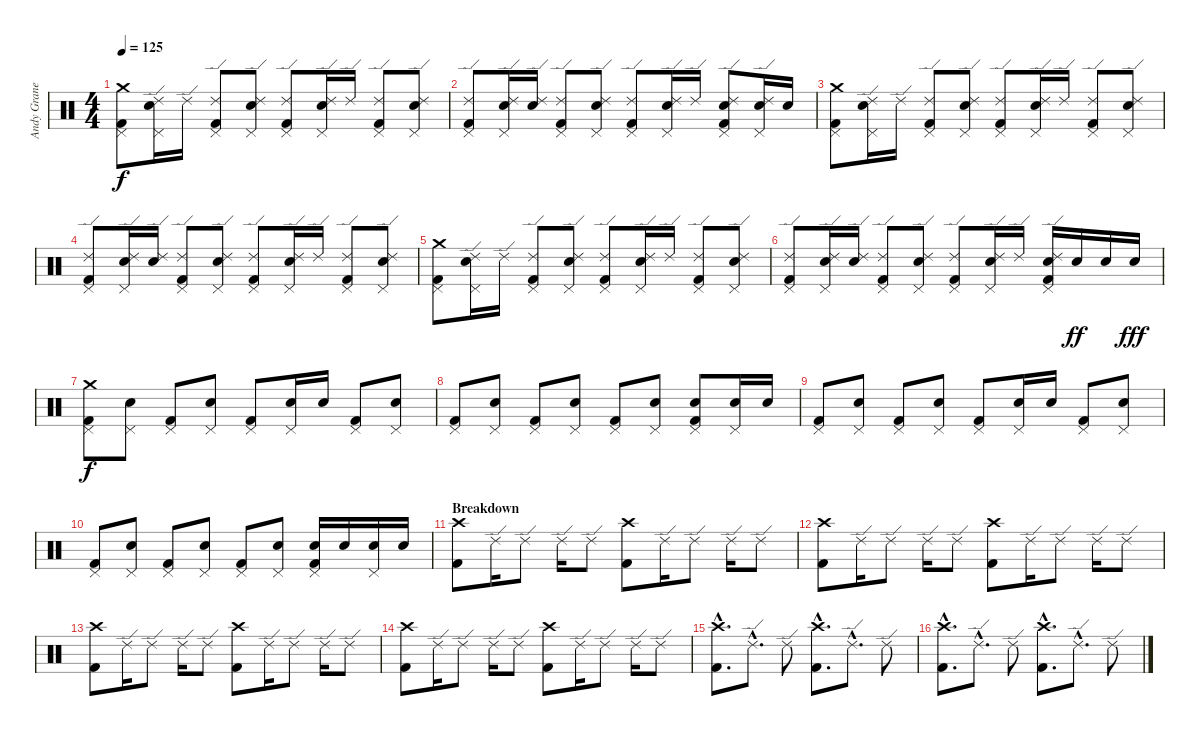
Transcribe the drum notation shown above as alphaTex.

\track ("Andy Granelli" "Andy Grane") {instrument percussion}
\staff {score}
\articulation defaults
\ts (4 4)
\tempo 125
\clef neutral
\ks c
("Crash medium (hit)" "Pedal Hi-Hat (hit)" "Kick (hit) 2").8{dy f} ("Ride (edge) 2" "Electric Snare (hit)" "Pedal Hi-Hat (hit)").16 "Ride (edge) 2".16 ("Ride (edge) 2" "Pedal Hi-Hat (hit)" "Kick (hit) 2").8 ("Ride (edge) 2" "Electric Snare (hit)" "Pedal Hi-Hat (hit)").8 ("Ride (edge) 2" "Pedal Hi-Hat (hit)" "Kick (hit) 2").8 ("Ride (edge) 2" "Electric Snare (hit)" "Pedal Hi-Hat (hit)").16 "Ride (edge) 2".16 ("Ride (edge) 2" "Pedal Hi-Hat (hit)" "Kick (hit) 2").8 ("Ride (edge) 2" "Electric Snare (hit)" "Pedal Hi-Hat (hit)").8 |
("Ride (edge) 2" "Pedal Hi-Hat (hit)" "Kick (hit) 2").8 ("Ride (edge) 2" "Electric Snare (hit)" "Pedal Hi-Hat (hit)").16 ("Ride (edge) 2" "Electric Snare (hit)").16 ("Ride (edge) 2" "Pedal Hi-Hat (hit)" "Kick (hit) 2").8 ("Ride (edge) 2" "Electric Snare (hit)" "Pedal Hi-Hat (hit)").8 ("Ride (edge) 2" "Pedal Hi-Hat (hit)" "Kick (hit) 2").8 ("Ride (edge) 2" "Electric Snare (hit)" "Pedal Hi-Hat (hit)").16 "Ride (edge) 2".16 ("Ride (edge) 2" "Electric Snare (hit)" "Pedal Hi-Hat (hit)" "Kick (hit) 2").8 ("Ride (edge) 2" "Electric Snare (hit)" "Pedal Hi-Hat (hit)").16 "Electric Snare (hit)".16 |
("Crash medium (hit)" "Pedal Hi-Hat (hit)" "Kick (hit) 2").8 ("Ride (edge) 2" "Electric Snare (hit)" "Pedal Hi-Hat (hit)").16 "Ride (edge) 2".16 ("Ride (edge) 2" "Pedal Hi-Hat (hit)" "Kick (hit) 2").8 ("Ride (edge) 2" "Electric Snare (hit)" "Pedal Hi-Hat (hit)").8 ("Ride (edge) 2" "Pedal Hi-Hat (hit)" "Kick (hit) 2").8 ("Ride (edge) 2" "Electric Snare (hit)" "Pedal Hi-Hat (hit)").16 "Ride (edge) 2".16 ("Ride (edge) 2" "Pedal Hi-Hat (hit)" "Kick (hit) 2").8 ("Ride (edge) 2" "Electric Snare (hit)" "Pedal Hi-Hat (hit)").8 |
("Ride (edge) 2" "Pedal Hi-Hat (hit)" "Kick (hit) 2").8 ("Ride (edge) 2" "Electric Snare (hit)" "Pedal Hi-Hat (hit)").16 ("Ride (edge) 2" "Electric Snare (hit)").16 ("Ride (edge) 2" "Pedal Hi-Hat (hit)" "Kick (hit) 2").8 ("Ride (edge) 2" "Electric Snare (hit)" "Pedal Hi-Hat (hit)").8 ("Ride (edge) 2" "Pedal Hi-Hat (hit)" "Kick (hit) 2").8 ("Ride (edge) 2" "Electric Snare (hit)" "Pedal Hi-Hat (hit)").16 "Ride (edge) 2".16 ("Ride (edge) 2" "Pedal Hi-Hat (hit)" "Kick (hit) 2").8 ("Ride (edge) 2" "Electric Snare (hit)" "Pedal Hi-Hat (hit)").8 |
("Crash medium (hit)" "Pedal Hi-Hat (hit)" "Kick (hit) 2").8 ("Ride (edge) 2" "Electric Snare (hit)" "Pedal Hi-Hat (hit)").16 "Ride (edge) 2".16 ("Ride (edge) 2" "Pedal Hi-Hat (hit)" "Kick (hit) 2").8 ("Ride (edge) 2" "Electric Snare (hit)" "Pedal Hi-Hat (hit)").8 ("Ride (edge) 2" "Pedal Hi-Hat (hit)" "Kick (hit) 2").8 ("Ride (edge) 2" "Electric Snare (hit)" "Pedal Hi-Hat (hit)").16 "Ride (edge) 2".16 ("Ride (edge) 2" "Pedal Hi-Hat (hit)" "Kick (hit) 2").8 ("Ride (edge) 2" "Electric Snare (hit)" "Pedal Hi-Hat (hit)").8 |
("Ride (edge) 2" "Pedal Hi-Hat (hit)" "Kick (hit) 2").8 ("Ride (edge) 2" "Electric Snare (hit)" "Pedal Hi-Hat (hit)").16 ("Ride (edge) 2" "Electric Snare (hit)").16 ("Ride (edge) 2" "Pedal Hi-Hat (hit)" "Kick (hit) 2").8 ("Ride (edge) 2" "Electric Snare (hit)" "Pedal Hi-Hat (hit)").8 ("Ride (edge) 2" "Pedal Hi-Hat (hit)" "Kick (hit) 2").8 ("Ride (edge) 2" "Electric Snare (hit)" "Pedal Hi-Hat (hit)").16 "Ride (edge) 2".16 ("Ride (edge) 2" "Electric Snare (hit)" "Pedal Hi-Hat (hit)" "Kick (hit) 2").16 "Electric Snare (hit)".16{dy ff} "Electric Snare (hit)".16 "Electric Snare (hit)".16{dy fff} |
("Crash medium (hit)" "Pedal Hi-Hat (hit)" "Kick (hit) 2").8{dy f} ("Pedal Hi-Hat (hit)" "Electric Snare (hit)").8 ("Pedal Hi-Hat (hit)" "Kick (hit) 2").8 ("Pedal Hi-Hat (hit)" "Electric Snare (hit)").8 ("Pedal Hi-Hat (hit)" "Kick (hit) 2").8 ("Pedal Hi-Hat (hit)" "Electric Snare (hit)").16 "Electric Snare (hit)".16 ("Pedal Hi-Hat (hit)" "Kick (hit) 2").8 ("Pedal Hi-Hat (hit)" "Electric Snare (hit)").8 |
("Pedal Hi-Hat (hit)" "Kick (hit) 2").8 ("Pedal Hi-Hat (hit)" "Electric Snare (hit)").8 ("Pedal Hi-Hat (hit)" "Kick (hit) 2").8 ("Pedal Hi-Hat (hit)" "Electric Snare (hit)").8 ("Pedal Hi-Hat (hit)" "Kick (hit) 2").8 ("Pedal Hi-Hat (hit)" "Electric Snare (hit)").8 ("Pedal Hi-Hat (hit)" "Electric Snare (hit)" "Kick (hit) 2").8 ("Pedal Hi-Hat (hit)" "Electric Snare (hit)").16 "Electric Snare (hit)".16 |
("Pedal Hi-Hat (hit)" "Kick (hit) 2").8 ("Pedal Hi-Hat (hit)" "Electric Snare (hit)").8 ("Pedal Hi-Hat (hit)" "Kick (hit) 2").8 ("Pedal Hi-Hat (hit)" "Electric Snare (hit)").8 ("Pedal Hi-Hat (hit)" "Kick (hit) 2").8 ("Pedal Hi-Hat (hit)" "Electric Snare (hit)").16 "Electric Snare (hit)".16 ("Pedal Hi-Hat (hit)" "Kick (hit) 2").8 ("Pedal Hi-Hat (hit)" "Electric Snare (hit)").8 |
("Pedal Hi-Hat (hit)" "Kick (hit) 2").8 ("Pedal Hi-Hat (hit)" "Electric Snare (hit)").8 ("Pedal Hi-Hat (hit)" "Kick (hit) 2").8 ("Pedal Hi-Hat (hit)" "Electric Snare (hit)").8 ("Pedal Hi-Hat (hit)" "Kick (hit) 2").8 ("Pedal Hi-Hat (hit)" "Electric Snare (hit)").8 ("Pedal Hi-Hat (hit)" "Electric Snare (hit)" "Kick (hit) 2").16 "Electric Snare (hit)".16 ("Pedal Hi-Hat (hit)" "Electric Snare (hit)").16 "Electric Snare (hit)".16 |
\section ("" "Breakdown")
("Crash high (hit)" "Kick (hit) 2").8 "Ride (edge) 2".16 "Ride (edge) 2".8 "Ride (edge) 2".16 "Ride (edge) 2".8 ("Crash high (hit)" "Kick (hit) 2").8 "Ride (edge) 2".16 "Ride (edge) 2".8 "Ride (edge) 2".16 "Ride (edge) 2".8 |
("Crash high (hit)" "Kick (hit) 2").8 "Ride (edge) 2".16 "Ride (edge) 2".8 "Ride (edge) 2".16 "Ride (edge) 2".8 ("Crash high (hit)" "Kick (hit) 2").8 "Ride (edge) 2".16 "Ride (edge) 2".8 "Ride (edge) 2".16 "Ride (edge) 2".8 |
("Crash high (hit)" "Kick (hit) 2").8 "Ride (edge) 2".16 "Ride (edge) 2".8 "Ride (edge) 2".16 "Ride (edge) 2".8 ("Crash high (hit)" "Kick (hit) 2").8 "Ride (edge) 2".16 "Ride (edge) 2".8 "Ride (edge) 2".16 "Ride (edge) 2".8 |
("Crash high (hit)" "Kick (hit) 2").8 "Ride (edge) 2".16 "Ride (edge) 2".8 "Ride (edge) 2".16 "Ride (edge) 2".8 ("Crash high (hit)" "Kick (hit) 2").8 "Ride (edge) 2".16 "Ride (edge) 2".8 "Ride (edge) 2".16 "Ride (edge) 2".8 |
("Crash high (hit)"{hac} "Kick (hit) 2"{hac}).8{d} "Ride (edge) 2"{hac}.8{d} "Ride (edge) 2".8 ("Crash high (hit)"{hac} "Kick (hit) 2"{hac}).8{d} "Ride (edge) 2"{hac}.8{d} "Ride (edge) 2".8 |
("Crash high (hit)"{hac} "Kick (hit) 2"{hac}).8{d} "Ride (edge) 2"{hac}.8{d} "Ride (edge) 2".8 ("Crash high (hit)"{hac} "Kick (hit) 2"{hac}).8{d} "Ride (edge) 2"{hac}.8{d} "Ride (edge) 2".8
